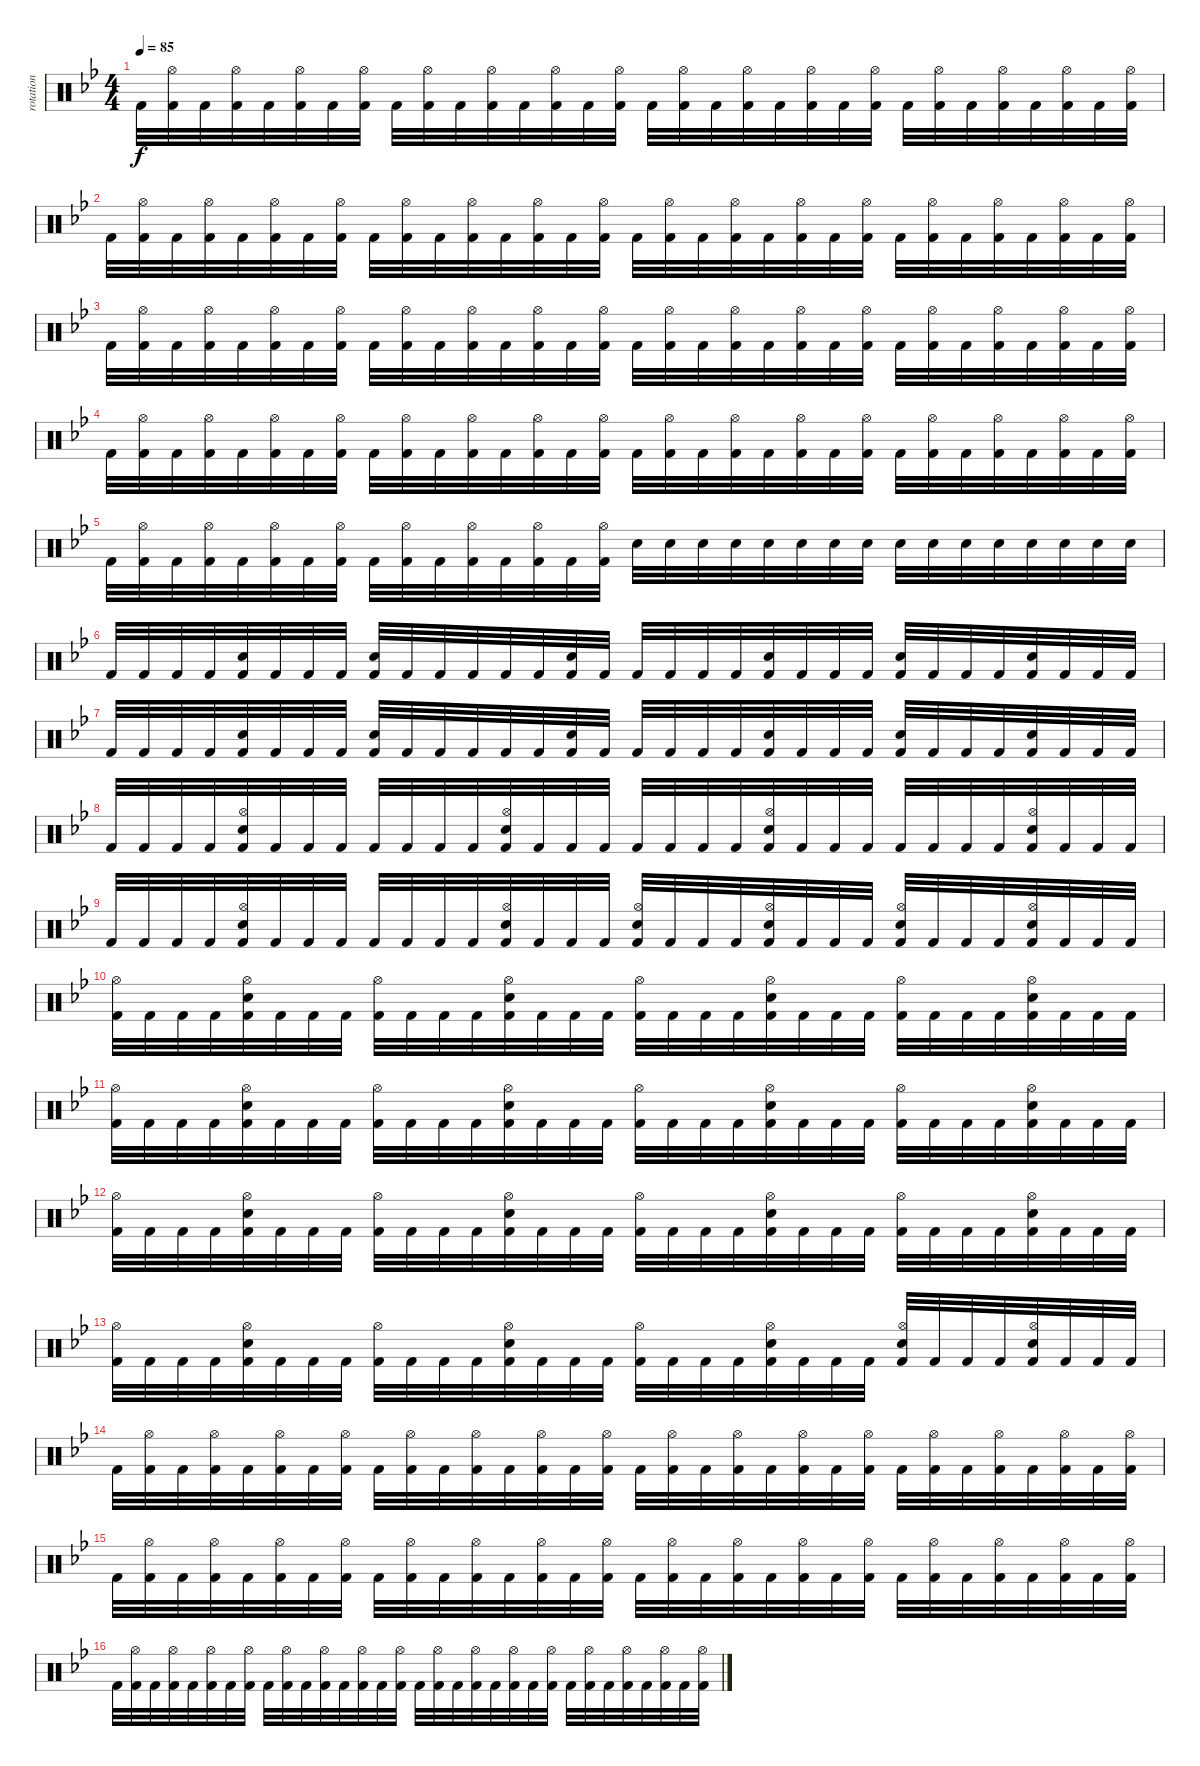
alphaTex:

\track ("rotation" "rotation") {instrument percussion}
\staff {score}
\articulation defaults
\ts (4 4)
\tempo 85
\clef neutral
\ks gminor "Kick (hit) 2".32{dy f}
("Hi-Hat (open)" "Kick (hit) 2").32 "Kick (hit) 2".32 ("Hi-Hat (open)" "Kick (hit) 2").32 "Kick (hit) 2".32 ("Hi-Hat (open)" "Kick (hit) 2").32 "Kick (hit) 2".32 ("Hi-Hat (open)" "Kick (hit) 2").32 "Kick (hit) 2".32 ("Hi-Hat (open)" "Kick (hit) 2").32 "Kick (hit) 2".32 ("Hi-Hat (open)" "Kick (hit) 2").32 "Kick (hit) 2".32 ("Hi-Hat (open)" "Kick (hit) 2").32 "Kick (hit) 2".32 ("Hi-Hat (open)" "Kick (hit) 2").32 "Kick (hit) 2".32 ("Hi-Hat (open)" "Kick (hit) 2").32 "Kick (hit) 2".32 ("Hi-Hat (open)" "Kick (hit) 2").32 "Kick (hit) 2".32 ("Hi-Hat (open)" "Kick (hit) 2").32 "Kick (hit) 2".32 ("Hi-Hat (open)" "Kick (hit) 2").32 "Kick (hit) 2".32 ("Hi-Hat (open)" "Kick (hit) 2").32 "Kick (hit) 2".32 ("Hi-Hat (open)" "Kick (hit) 2").32 "Kick (hit) 2".32 ("Hi-Hat (open)" "Kick (hit) 2").32 "Kick (hit) 2".32 ("Hi-Hat (open)" "Kick (hit) 2").32 |
"Kick (hit) 2".32 ("Hi-Hat (open)" "Kick (hit) 2").32 "Kick (hit) 2".32 ("Hi-Hat (open)" "Kick (hit) 2").32 "Kick (hit) 2".32 ("Hi-Hat (open)" "Kick (hit) 2").32 "Kick (hit) 2".32 ("Hi-Hat (open)" "Kick (hit) 2").32 "Kick (hit) 2".32 ("Hi-Hat (open)" "Kick (hit) 2").32 "Kick (hit) 2".32 ("Hi-Hat (open)" "Kick (hit) 2").32 "Kick (hit) 2".32 ("Hi-Hat (open)" "Kick (hit) 2").32 "Kick (hit) 2".32 ("Hi-Hat (open)" "Kick (hit) 2").32 "Kick (hit) 2".32 ("Hi-Hat (open)" "Kick (hit) 2").32 "Kick (hit) 2".32 ("Hi-Hat (open)" "Kick (hit) 2").32 "Kick (hit) 2".32 ("Hi-Hat (open)" "Kick (hit) 2").32 "Kick (hit) 2".32 ("Hi-Hat (open)" "Kick (hit) 2").32 "Kick (hit) 2".32 ("Hi-Hat (open)" "Kick (hit) 2").32 "Kick (hit) 2".32 ("Hi-Hat (open)" "Kick (hit) 2").32 "Kick (hit) 2".32 ("Hi-Hat (open)" "Kick (hit) 2").32 "Kick (hit) 2".32 ("Hi-Hat (open)" "Kick (hit) 2").32 |
"Kick (hit) 2".32 ("Hi-Hat (open)" "Kick (hit) 2").32 "Kick (hit) 2".32 ("Hi-Hat (open)" "Kick (hit) 2").32 "Kick (hit) 2".32 ("Hi-Hat (open)" "Kick (hit) 2").32 "Kick (hit) 2".32 ("Hi-Hat (open)" "Kick (hit) 2").32 "Kick (hit) 2".32 ("Hi-Hat (open)" "Kick (hit) 2").32 "Kick (hit) 2".32 ("Hi-Hat (open)" "Kick (hit) 2").32 "Kick (hit) 2".32 ("Hi-Hat (open)" "Kick (hit) 2").32 "Kick (hit) 2".32 ("Hi-Hat (open)" "Kick (hit) 2").32 "Kick (hit) 2".32 ("Hi-Hat (open)" "Kick (hit) 2").32 "Kick (hit) 2".32 ("Hi-Hat (open)" "Kick (hit) 2").32 "Kick (hit) 2".32 ("Hi-Hat (open)" "Kick (hit) 2").32 "Kick (hit) 2".32 ("Hi-Hat (open)" "Kick (hit) 2").32 "Kick (hit) 2".32 ("Hi-Hat (open)" "Kick (hit) 2").32 "Kick (hit) 2".32 ("Hi-Hat (open)" "Kick (hit) 2").32 "Kick (hit) 2".32 ("Hi-Hat (open)" "Kick (hit) 2").32 "Kick (hit) 2".32 ("Hi-Hat (open)" "Kick (hit) 2").32 |
"Kick (hit) 2".32 ("Hi-Hat (open)" "Kick (hit) 2").32 "Kick (hit) 2".32 ("Hi-Hat (open)" "Kick (hit) 2").32 "Kick (hit) 2".32 ("Hi-Hat (open)" "Kick (hit) 2").32 "Kick (hit) 2".32 ("Hi-Hat (open)" "Kick (hit) 2").32 "Kick (hit) 2".32 ("Hi-Hat (open)" "Kick (hit) 2").32 "Kick (hit) 2".32 ("Hi-Hat (open)" "Kick (hit) 2").32 "Kick (hit) 2".32 ("Hi-Hat (open)" "Kick (hit) 2").32 "Kick (hit) 2".32 ("Hi-Hat (open)" "Kick (hit) 2").32 "Kick (hit) 2".32 ("Hi-Hat (open)" "Kick (hit) 2").32 "Kick (hit) 2".32 ("Hi-Hat (open)" "Kick (hit) 2").32 "Kick (hit) 2".32 ("Hi-Hat (open)" "Kick (hit) 2").32 "Kick (hit) 2".32 ("Hi-Hat (open)" "Kick (hit) 2").32 "Kick (hit) 2".32 ("Hi-Hat (open)" "Kick (hit) 2").32 "Kick (hit) 2".32 ("Hi-Hat (open)" "Kick (hit) 2").32 "Kick (hit) 2".32 ("Hi-Hat (open)" "Kick (hit) 2").32 "Kick (hit) 2".32 ("Hi-Hat (open)" "Kick (hit) 2").32 |
"Kick (hit) 2".32 ("Hi-Hat (open)" "Kick (hit) 2").32 "Kick (hit) 2".32 ("Hi-Hat (open)" "Kick (hit) 2").32 "Kick (hit) 2".32 ("Hi-Hat (open)" "Kick (hit) 2").32 "Kick (hit) 2".32 ("Hi-Hat (open)" "Kick (hit) 2").32 "Kick (hit) 2".32 ("Hi-Hat (open)" "Kick (hit) 2").32 "Kick (hit) 2".32 ("Hi-Hat (open)" "Kick (hit) 2").32 "Kick (hit) 2".32 ("Hi-Hat (open)" "Kick (hit) 2").32 "Kick (hit) 2".32 ("Hi-Hat (open)" "Kick (hit) 2").32 "Electric Snare (hit)".32 "Electric Snare (hit)".32 "Electric Snare (hit)".32 "Electric Snare (hit)".32 "Electric Snare (hit)".32 "Electric Snare (hit)".32 "Electric Snare (hit)".32 "Electric Snare (hit)".32 "Snare (hit) 2".32 "Snare (hit) 2".32 "Snare (hit) 2".32 "Snare (hit) 2".32 "Snare (hit) 2".32 "Snare (hit) 2".32 "Snare (hit) 2".32 "Snare (hit) 2".32 |
"Kick (hit) 2".32 "Kick (hit) 2".32 "Kick (hit) 2".32 "Kick (hit) 2".32 ("Snare (hit) 2" "Kick (hit) 2").32 "Kick (hit) 2".32 "Kick (hit) 2".32 "Kick (hit) 2".32 ("Snare (hit) 2" "Kick (hit) 2").32 "Kick (hit) 2".32 "Kick (hit) 2".32 "Kick (hit) 2".32 "Kick (hit) 2".32 "Kick (hit) 2".32 ("Snare (hit) 2" "Kick (hit) 2").32 "Kick (hit) 2".32 "Kick (hit) 2".32 "Kick (hit) 2".32 "Kick (hit) 2".32 "Kick (hit) 2".32 ("Snare (hit) 2" "Kick (hit) 2").32 "Kick (hit) 2".32 "Kick (hit) 2".32 "Kick (hit) 2".32 ("Snare (hit) 2" "Kick (hit) 2").32 "Kick (hit) 2".32 "Kick (hit) 2".32 "Kick (hit) 2".32 ("Snare (hit) 2" "Kick (hit) 2").32 "Kick (hit) 2".32 "Kick (hit) 2".32 "Kick (hit) 2".32 |
"Kick (hit) 2".32 "Kick (hit) 2".32 "Kick (hit) 2".32 "Kick (hit) 2".32 ("Snare (hit) 2" "Kick (hit) 2").32 "Kick (hit) 2".32 "Kick (hit) 2".32 "Kick (hit) 2".32 ("Snare (hit) 2" "Kick (hit) 2").32 "Kick (hit) 2".32 "Kick (hit) 2".32 "Kick (hit) 2".32 "Kick (hit) 2".32 "Kick (hit) 2".32 ("Snare (hit) 2" "Kick (hit) 2").32 "Kick (hit) 2".32 "Kick (hit) 2".32 "Kick (hit) 2".32 "Kick (hit) 2".32 "Kick (hit) 2".32 ("Snare (hit) 2" "Kick (hit) 2").32 "Kick (hit) 2".32 "Kick (hit) 2".32 "Kick (hit) 2".32 ("Snare (hit) 2" "Kick (hit) 2").32 "Kick (hit) 2".32 "Kick (hit) 2".32 "Kick (hit) 2".32 ("Snare (hit) 2" "Kick (hit) 2").32 "Kick (hit) 2".32 "Kick (hit) 2".32 "Kick (hit) 2".32 |
"Kick (hit) 2".32 "Kick (hit) 2".32 "Kick (hit) 2".32 "Kick (hit) 2".32 ("Hi-Hat (open)" "Snare (hit) 2" "Kick (hit) 2").32 "Kick (hit) 2".32 "Kick (hit) 2".32 "Kick (hit) 2".32 "Kick (hit) 2".32 "Kick (hit) 2".32 "Kick (hit) 2".32 "Kick (hit) 2".32 ("Hi-Hat (open)" "Snare (hit) 2" "Kick (hit) 2").32 "Kick (hit) 2".32 "Kick (hit) 2".32 "Kick (hit) 2".32 "Kick (hit) 2".32 "Kick (hit) 2".32 "Kick (hit) 2".32 "Kick (hit) 2".32 ("Hi-Hat (open)" "Snare (hit) 2" "Kick (hit) 2").32 "Kick (hit) 2".32 "Kick (hit) 2".32 "Kick (hit) 2".32 "Kick (hit) 2".32 "Kick (hit) 2".32 "Kick (hit) 2".32 "Kick (hit) 2".32 ("Hi-Hat (open)" "Snare (hit) 2" "Kick (hit) 2").32 "Kick (hit) 2".32 "Kick (hit) 2".32 "Kick (hit) 2".32 |
"Kick (hit) 2".32 "Kick (hit) 2".32 "Kick (hit) 2".32 "Kick (hit) 2".32 ("Hi-Hat (open)" "Snare (hit) 2" "Kick (hit) 2").32 "Kick (hit) 2".32 "Kick (hit) 2".32 "Kick (hit) 2".32 "Kick (hit) 2".32 "Kick (hit) 2".32 "Kick (hit) 2".32 "Kick (hit) 2".32 ("Hi-Hat (open)" "Snare (hit) 2" "Kick (hit) 2").32 "Kick (hit) 2".32 "Kick (hit) 2".32 "Kick (hit) 2".32 ("Hi-Hat (open)" "Snare (hit) 2" "Kick (hit) 2").32 "Kick (hit) 2".32 "Kick (hit) 2".32 "Kick (hit) 2".32 ("Hi-Hat (open)" "Snare (hit) 2" "Kick (hit) 2").32 "Kick (hit) 2".32 "Kick (hit) 2".32 "Kick (hit) 2".32 ("Hi-Hat (open)" "Snare (hit) 2" "Kick (hit) 2").32 "Kick (hit) 2".32 "Kick (hit) 2".32 "Kick (hit) 2".32 ("Hi-Hat (open)" "Snare (hit) 2" "Kick (hit) 2").32 "Kick (hit) 2".32 "Kick (hit) 2".32 "Kick (hit) 2".32 |
("Hi-Hat (open)" "Kick (hit) 2").32 "Kick (hit) 2".32 "Kick (hit) 2".32 "Kick (hit) 2".32 ("Hi-Hat (open)" "Electric Snare (hit)" "Kick (hit) 2").32 "Kick (hit) 2".32 "Kick (hit) 2".32 "Kick (hit) 2".32 ("Hi-Hat (open)" "Kick (hit) 2").32 "Kick (hit) 2".32 "Kick (hit) 2".32 "Kick (hit) 2".32 ("Hi-Hat (open)" "Electric Snare (hit)" "Kick (hit) 2").32 "Kick (hit) 2".32 "Kick (hit) 2".32 "Kick (hit) 2".32 ("Hi-Hat (open)" "Kick (hit) 2").32 "Kick (hit) 2".32 "Kick (hit) 2".32 "Kick (hit) 2".32 ("Hi-Hat (open)" "Electric Snare (hit)" "Kick (hit) 2").32 "Kick (hit) 2".32 "Kick (hit) 2".32 "Kick (hit) 2".32 ("Hi-Hat (open)" "Kick (hit) 2").32 "Kick (hit) 2".32 "Kick (hit) 2".32 "Kick (hit) 2".32 ("Hi-Hat (open)" "Electric Snare (hit)" "Kick (hit) 2").32 "Kick (hit) 2".32 "Kick (hit) 2".32 "Kick (hit) 2".32 |
("Hi-Hat (open)" "Kick (hit) 2").32 "Kick (hit) 2".32 "Kick (hit) 2".32 "Kick (hit) 2".32 ("Hi-Hat (open)" "Electric Snare (hit)" "Kick (hit) 2").32 "Kick (hit) 2".32 "Kick (hit) 2".32 "Kick (hit) 2".32 ("Hi-Hat (open)" "Kick (hit) 2").32 "Kick (hit) 2".32 "Kick (hit) 2".32 "Kick (hit) 2".32 ("Hi-Hat (open)" "Electric Snare (hit)" "Kick (hit) 2").32 "Kick (hit) 2".32 "Kick (hit) 2".32 "Kick (hit) 2".32 ("Hi-Hat (open)" "Kick (hit) 2").32 "Kick (hit) 2".32 "Kick (hit) 2".32 "Kick (hit) 2".32 ("Hi-Hat (open)" "Electric Snare (hit)" "Kick (hit) 2").32 "Kick (hit) 2".32 "Kick (hit) 2".32 "Kick (hit) 2".32 ("Hi-Hat (open)" "Kick (hit) 2").32 "Kick (hit) 2".32 "Kick (hit) 2".32 "Kick (hit) 2".32 ("Hi-Hat (open)" "Electric Snare (hit)" "Kick (hit) 2").32 "Kick (hit) 2".32 "Kick (hit) 2".32 "Kick (hit) 2".32 |
("Hi-Hat (open)" "Kick (hit) 2").32 "Kick (hit) 2".32 "Kick (hit) 2".32 "Kick (hit) 2".32 ("Hi-Hat (open)" "Electric Snare (hit)" "Kick (hit) 2").32 "Kick (hit) 2".32 "Kick (hit) 2".32 "Kick (hit) 2".32 ("Hi-Hat (open)" "Kick (hit) 2").32 "Kick (hit) 2".32 "Kick (hit) 2".32 "Kick (hit) 2".32 ("Hi-Hat (open)" "Electric Snare (hit)" "Kick (hit) 2").32 "Kick (hit) 2".32 "Kick (hit) 2".32 "Kick (hit) 2".32 ("Hi-Hat (open)" "Kick (hit) 2").32 "Kick (hit) 2".32 "Kick (hit) 2".32 "Kick (hit) 2".32 ("Hi-Hat (open)" "Electric Snare (hit)" "Kick (hit) 2").32 "Kick (hit) 2".32 "Kick (hit) 2".32 "Kick (hit) 2".32 ("Hi-Hat (open)" "Kick (hit) 2").32 "Kick (hit) 2".32 "Kick (hit) 2".32 "Kick (hit) 2".32 ("Hi-Hat (open)" "Electric Snare (hit)" "Kick (hit) 2").32 "Kick (hit) 2".32 "Kick (hit) 2".32 "Kick (hit) 2".32 |
("Hi-Hat (open)" "Kick (hit) 2").32 "Kick (hit) 2".32 "Kick (hit) 2".32 "Kick (hit) 2".32 ("Hi-Hat (open)" "Electric Snare (hit)" "Kick (hit) 2").32 "Kick (hit) 2".32 "Kick (hit) 2".32 "Kick (hit) 2".32 ("Hi-Hat (open)" "Kick (hit) 2").32 "Kick (hit) 2".32 "Kick (hit) 2".32 "Kick (hit) 2".32 ("Hi-Hat (open)" "Electric Snare (hit)" "Kick (hit) 2").32 "Kick (hit) 2".32 "Kick (hit) 2".32 "Kick (hit) 2".32 ("Hi-Hat (open)" "Kick (hit) 2").32 "Kick (hit) 2".32 "Kick (hit) 2".32 "Kick (hit) 2".32 ("Hi-Hat (open)" "Electric Snare (hit)" "Kick (hit) 2").32 "Kick (hit) 2".32 "Kick (hit) 2".32 "Kick (hit) 2".32 ("Hi-Hat (open)" "Electric Snare (hit)" "Kick (hit) 2").32 "Kick (hit) 2".32 "Kick (hit) 2".32 "Kick (hit) 2".32 ("Hi-Hat (open)" "Electric Snare (hit)" "Kick (hit) 2").32 "Kick (hit) 2".32 "Kick (hit) 2".32 "Kick (hit) 2".32 |
"Kick (hit) 2".32 ("Hi-Hat (open)" "Kick (hit) 2").32 "Kick (hit) 2".32 ("Hi-Hat (open)" "Kick (hit) 2").32 "Kick (hit) 2".32 ("Hi-Hat (open)" "Kick (hit) 2").32 "Kick (hit) 2".32 ("Hi-Hat (open)" "Kick (hit) 2").32 "Kick (hit) 2".32 ("Hi-Hat (open)" "Kick (hit) 2").32 "Kick (hit) 2".32 ("Hi-Hat (open)" "Kick (hit) 2").32 "Kick (hit) 2".32 ("Hi-Hat (open)" "Kick (hit) 2").32 "Kick (hit) 2".32 ("Hi-Hat (open)" "Kick (hit) 2").32 "Kick (hit) 2".32 ("Hi-Hat (open)" "Kick (hit) 2").32 "Kick (hit) 2".32 ("Hi-Hat (open)" "Kick (hit) 2").32 "Kick (hit) 2".32 ("Hi-Hat (open)" "Kick (hit) 2").32 "Kick (hit) 2".32 ("Hi-Hat (open)" "Kick (hit) 2").32 "Kick (hit) 2".32 ("Hi-Hat (open)" "Kick (hit) 2").32 "Kick (hit) 2".32 ("Hi-Hat (open)" "Kick (hit) 2").32 "Kick (hit) 2".32 ("Hi-Hat (open)" "Kick (hit) 2").32 "Kick (hit) 2".32 ("Hi-Hat (open)" "Kick (hit) 2").32 |
"Kick (hit) 2".32 ("Hi-Hat (open)" "Kick (hit) 2").32 "Kick (hit) 2".32 ("Hi-Hat (open)" "Kick (hit) 2").32 "Kick (hit) 2".32 ("Hi-Hat (open)" "Kick (hit) 2").32 "Kick (hit) 2".32 ("Hi-Hat (open)" "Kick (hit) 2").32 "Kick (hit) 2".32 ("Hi-Hat (open)" "Kick (hit) 2").32 "Kick (hit) 2".32 ("Hi-Hat (open)" "Kick (hit) 2").32 "Kick (hit) 2".32 ("Hi-Hat (open)" "Kick (hit) 2").32 "Kick (hit) 2".32 ("Hi-Hat (open)" "Kick (hit) 2").32 "Kick (hit) 2".32 ("Hi-Hat (open)" "Kick (hit) 2").32 "Kick (hit) 2".32 ("Hi-Hat (open)" "Kick (hit) 2").32 "Kick (hit) 2".32 ("Hi-Hat (open)" "Kick (hit) 2").32 "Kick (hit) 2".32 ("Hi-Hat (open)" "Kick (hit) 2").32 "Kick (hit) 2".32 ("Hi-Hat (open)" "Kick (hit) 2").32 "Kick (hit) 2".32 ("Hi-Hat (open)" "Kick (hit) 2").32 "Kick (hit) 2".32 ("Hi-Hat (open)" "Kick (hit) 2").32 "Kick (hit) 2".32 ("Hi-Hat (open)" "Kick (hit) 2").32 |
"Kick (hit) 2".32 ("Hi-Hat (open)" "Kick (hit) 2").32 "Kick (hit) 2".32 ("Hi-Hat (open)" "Kick (hit) 2").32 "Kick (hit) 2".32 ("Hi-Hat (open)" "Kick (hit) 2").32 "Kick (hit) 2".32 ("Hi-Hat (open)" "Kick (hit) 2").32 "Kick (hit) 2".32 ("Hi-Hat (open)" "Kick (hit) 2").32 "Kick (hit) 2".32 ("Hi-Hat (open)" "Kick (hit) 2").32 "Kick (hit) 2".32 ("Hi-Hat (open)" "Kick (hit) 2").32 "Kick (hit) 2".32 ("Hi-Hat (open)" "Kick (hit) 2").32 "Kick (hit) 2".32 ("Hi-Hat (open)" "Kick (hit) 2").32 "Kick (hit) 2".32 ("Hi-Hat (open)" "Kick (hit) 2").32 "Kick (hit) 2".32 ("Hi-Hat (open)" "Kick (hit) 2").32 "Kick (hit) 2".32 ("Hi-Hat (open)" "Kick (hit) 2").32 "Kick (hit) 2".32 ("Hi-Hat (open)" "Kick (hit) 2").32 "Kick (hit) 2".32 ("Hi-Hat (open)" "Kick (hit) 2").32 "Kick (hit) 2".32 ("Hi-Hat (open)" "Kick (hit) 2").32 "Kick (hit) 2".32 ("Hi-Hat (open)" "Kick (hit) 2").32
